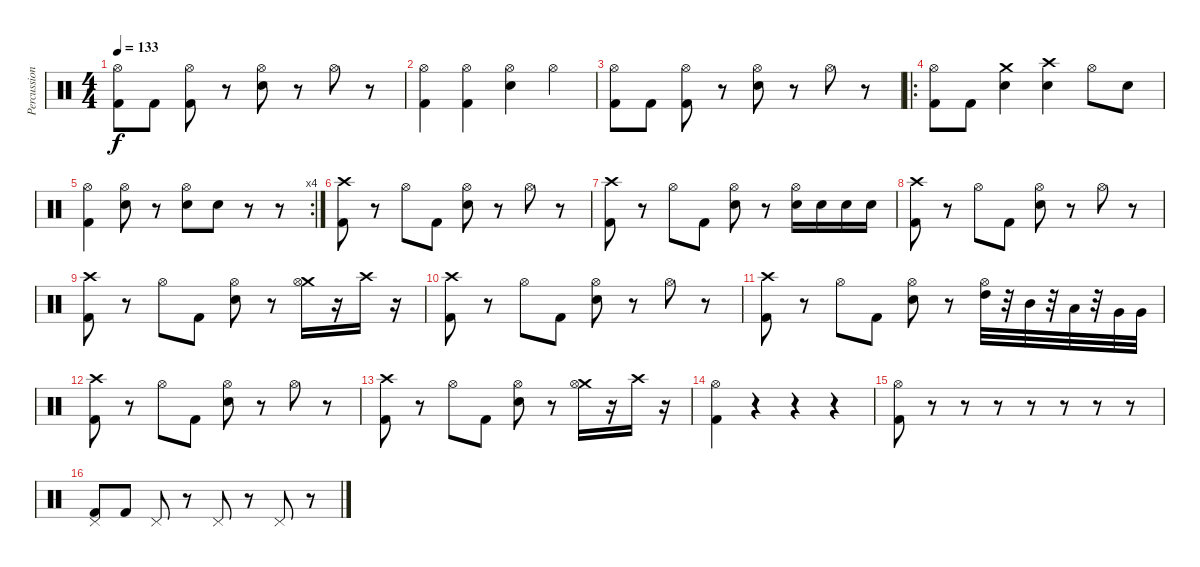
\track ("Percussion" "Percussion") {instrument percussion}
\staff {score}
\articulation defaults
\ts (4 4)
\tempo 133
\clef neutral
\ks c
("Hi-Hat (open)" "Kick (hit) 2").8{dy f} "Kick (hit) 2".8 ("Hi-Hat (open)" "Kick (hit) 2").8 r.8 ("Hi-Hat (open)" "Electric Snare (hit)").8 r.8 "Hi-Hat (open)".8 r.8 |
("Hi-Hat (open)" "Kick (hit) 2").4 ("Hi-Hat (open)" "Kick (hit) 2").4 ("Hi-Hat (open)" "Snare (hit) 2").4 "Hi-Hat (open)".4 |
("Hi-Hat (open)" "Kick (hit) 2").8 "Kick (hit) 2".8 ("Hi-Hat (open)" "Kick (hit) 2").8 r.8 ("Hi-Hat (open)" "Electric Snare (hit)").8 r.8 "Hi-Hat (open)".8 r.8 |
\ro
("Hi-Hat (open)" "Kick (hit) 2").8 "Kick (hit) 2".8 ("Crash medium (hit)" "Electric Snare (hit)").4 ("Crash high (hit)" "Electric Snare (hit)").4 "Hi-Hat (open)".8 "Electric Snare (hit)".8 |
\rc 4
("Hi-Hat (open)" "Kick (hit) 2").4 ("Hi-Hat (open)" "Electric Snare (hit)").8 r.8 ("Hi-Hat (open)" "Electric Snare (hit)").8 "Electric Snare (hit)".8 r.8 r.8 |
("Crash high (hit)" "Kick (hit) 2").8 r.8 "Hi-Hat (open)".8 "Kick (hit) 2".8 ("Electric Snare (hit)" "Hi-Hat (open)").8 r.8 "Hi-Hat (open)".8 r.8 |
("Crash high (hit)" "Kick (hit) 2").8 r.8 "Hi-Hat (open)".8 "Kick (hit) 2".8 ("Electric Snare (hit)" "Hi-Hat (open)").8 r.8 ("Electric Snare (hit)" "Hi-Hat (open)").16 "Electric Snare (hit)".16 "Electric Snare (hit)".16 "Electric Snare (hit)".16 |
("Crash high (hit)" "Kick (hit) 2").8 r.8 "Hi-Hat (open)".8 "Kick (hit) 2".8 ("Electric Snare (hit)" "Hi-Hat (open)").8 r.8 "Hi-Hat (open)".8 r.8 |
("Crash high (hit)" "Kick (hit) 2").8 r.8 "Hi-Hat (open)".8 "Kick (hit) 2".8 ("Electric Snare (hit)" "Hi-Hat (open)").8 r.8 ("Crash medium (hit)" "Hi-Hat (open)").16 r.16 "Crash high (hit)".16 r.16 |
("Crash high (hit)" "Kick (hit) 2").8 r.8 "Hi-Hat (open)".8 "Kick (hit) 2".8 ("Electric Snare (hit)" "Hi-Hat (open)").8 r.8 "Hi-Hat (open)".8 r.8 |
("Crash high (hit)" "Kick (hit) 2").8 r.8 "Hi-Hat (open)".8 "Kick (hit) 2".8 ("Electric Snare (hit)" "Hi-Hat (open)").8 r.8 ("High Tom (hit)" "Hi-Hat (open)").32 r.32 "Mid Tom (hit)".32 r.32 "Low Tom (hit)".32 r.32 "Very Low Tom (hit)".32 "Very Low Tom (hit)".32 |
("Crash high (hit)" "Kick (hit) 2").8 r.8 "Hi-Hat (open)".8 "Kick (hit) 2".8 ("Electric Snare (hit)" "Hi-Hat (open)").8 r.8 "Hi-Hat (open)".8 r.8 |
("Crash high (hit)" "Kick (hit) 2").8 r.8 "Hi-Hat (open)".8 "Kick (hit) 2".8 ("Electric Snare (hit)" "Hi-Hat (open)").8 r.8 ("Crash medium (hit)" "Hi-Hat (open)").16 r.16 "Crash high (hit)".16 r.16 |
("Hi-Hat (open)" "Kick (hit) 2").4 r.4 r.4 r.4 |
("Hi-Hat (open)" "Kick (hit) 2").8 r.8 r.8 r.8 r.8 r.8 r.8 r.8 |
("Pedal Hi-Hat (hit)" "Kick (hit) 2").8 "Kick (hit) 2".8 "Pedal Hi-Hat (hit)".8 r.8 "Pedal Hi-Hat (hit)".8 r.8 "Pedal Hi-Hat (hit)".8 r.8
